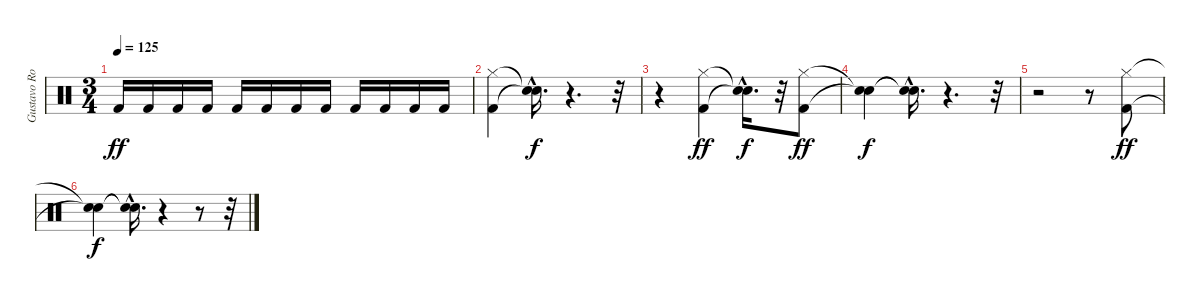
\track ("Gustavo Rowek 1" "Gustavo Ro") {instrument percussion}
\staff {score}
\articulation defaults
\ts (3 4)
\tempo 125
\clef neutral
\ks c "Kick (hit) 2".16{dy ff} "Kick (hit) 2".16 "Kick (hit) 2".16 "Kick (hit) 2".16 "Kick (hit) 2".16 "Kick (hit) 2".16 "Kick (hit) 2".16 "Kick (hit) 2".16 "Kick (hit) 2".16 "Kick (hit) 2".16 "Kick (hit) 2".16 "Kick (hit) 2".16
|
("Kick (hit) 2" "Hi-Hat (closed)").4 ("Snare (hit)"{hac t} "Snare (hit)"{hac t}).16{d dy f} r.4{d} r.32 |
r.4 ("Kick (hit) 2" "Hi-Hat (closed)").4{dy ff} ("Snare (hit)"{hac t} "Snare (hit)"{hac t}).16{d dy f} r.32 ("Kick (hit) 2" "Hi-Hat (closed)").8{dy ff} |
("Snare (hit)"{t} "Snare (hit)"{t}).4{dy f} ("Snare (hit)"{hac t} "Snare (hit)"{hac t}).16{d} r.4{d} r.32 |
r.2 r.8 ("Kick (hit) 2" "Hi-Hat (closed)").8{dy ff} |
("Snare (hit)"{t} "Snare (hit)"{t}).4{dy f} ("Snare (hit)"{hac t} "Snare (hit)"{hac t}).16{d} r.4 r.8 r.32
